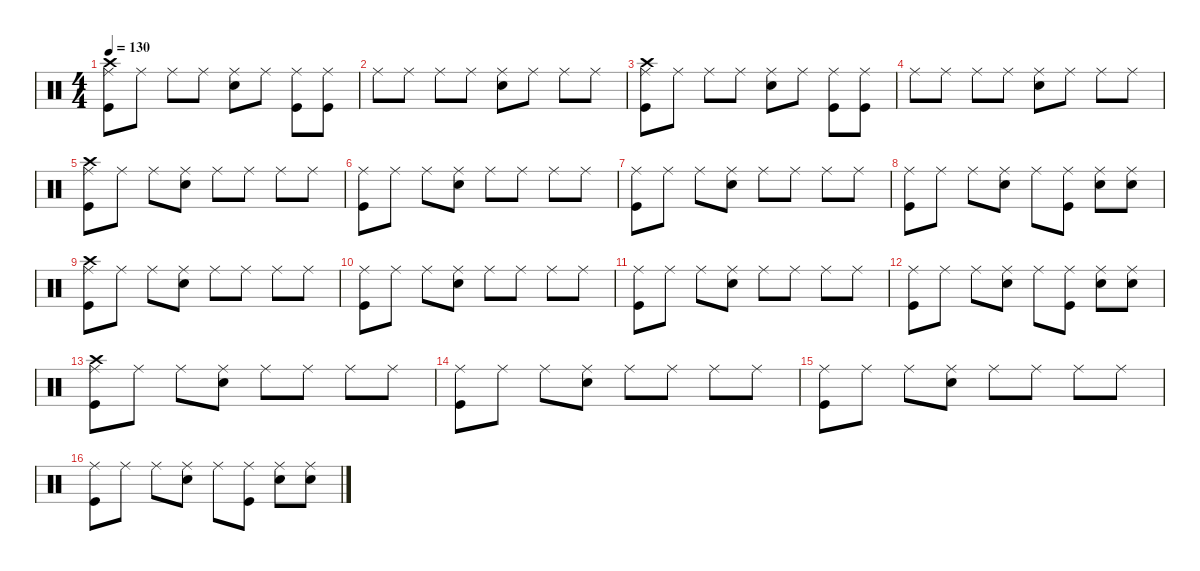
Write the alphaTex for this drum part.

\defaultSystemsLayout 4
\hideDynamics
\bracketExtendMode nobrackets
\singleTrackTrackNamePolicy hidden
\multiTrackTrackNamePolicy hidden
\firstSystemTrackNameMode fullname
\firstSystemTrackNameOrientation horizontal
\otherSystemsTrackNameOrientation horizontal
\track ("Percussion" "drm.") {defaultSystemsLayout 2 instrument percussion}
\staff {score}
\articulation defaults
\ts (4 4)
\tempo 130
\clef neutral
\ks c
("Crash high (hit)" "Ride (middle)" "Kick (hit)").8{dy f beam Down} "Ride (middle)".8{beam Down} "Ride (middle)".8{beam Down} "Ride (middle)".8{beam Down} ("Ride (middle)" "Snare (hit) 2").8{beam Down} "Ride (middle)".8{beam Down} ("Ride (middle)" "Kick (hit)").8{beam Down} ("Ride (middle)" "Kick (hit)").8{beam Down} |
"Ride (middle)".8{beam Down} "Ride (middle)".8{beam Down} "Ride (middle)".8{beam Down} "Ride (middle)".8{beam Down} ("Ride (middle)" "Snare (hit) 2").8{beam Down} "Ride (middle)".8{beam Down} "Ride (middle)".8{beam Down} "Ride (middle)".8{beam Down} |
("Crash high (hit)" "Ride (middle)" "Kick (hit)").8{beam Down} "Ride (middle)".8{beam Down} "Ride (middle)".8{beam Down} "Ride (middle)".8{beam Down} ("Ride (middle)" "Snare (hit) 2").8{beam Down} "Ride (middle)".8{beam Down} ("Ride (middle)" "Kick (hit)").8{beam Down} ("Ride (middle)" "Kick (hit)").8{beam Down} |
"Ride (middle)".8{beam Down} "Ride (middle)".8{beam Down} "Ride (middle)".8{beam Down} "Ride (middle)".8{beam Down} ("Ride (middle)" "Snare (hit) 2").8{beam Down} "Ride (middle)".8{beam Down} "Ride (middle)".8{beam Down} "Ride (middle)".8{beam Down} |
("Crash high (hit)" "Ride (middle)" "Kick (hit)").8{beam Down} "Ride (middle)".8{beam Down} "Ride (middle)".8{beam Down} ("Ride (middle)" "Snare (hit) 2").8{beam Down} "Ride (middle)".8{beam Down} "Ride (middle)".8{beam Down} "Ride (middle)".8{beam Down} "Ride (middle)".8{beam Down} |
("Ride (middle)" "Kick (hit)").8{beam Down} "Ride (middle)".8{beam Down} "Ride (middle)".8{beam Down} ("Ride (middle)" "Snare (hit) 2").8{beam Down} "Ride (middle)".8{beam Down} "Ride (middle)".8{beam Down} "Ride (middle)".8{beam Down} "Ride (middle)".8{beam Down} |
("Ride (middle)" "Kick (hit)").8{beam Down} "Ride (middle)".8{beam Down} "Ride (middle)".8{beam Down} ("Ride (middle)" "Snare (hit) 2").8{beam Down} "Ride (middle)".8{beam Down} "Ride (middle)".8{beam Down} "Ride (middle)".8{beam Down} "Ride (middle)".8{beam Down} |
("Ride (middle)" "Kick (hit)").8{beam Down} "Ride (middle)".8{beam Down} "Ride (middle)".8{beam Down} ("Ride (middle)" "Snare (hit) 2").8{beam Down} "Ride (middle)".8{beam Down} ("Ride (middle)" "Kick (hit)").8{beam Down} ("Ride (middle)" "Snare (hit) 2").8{beam Down} ("Ride (middle)" "Snare (hit) 2").8{beam Down} |
("Crash high (hit)" "Ride (middle)" "Kick (hit)").8{beam Down} "Ride (middle)".8{beam Down} "Ride (middle)".8{beam Down} ("Ride (middle)" "Snare (hit) 2").8{beam Down} "Ride (middle)".8{beam Down} "Ride (middle)".8{beam Down} "Ride (middle)".8{beam Down} "Ride (middle)".8{beam Down} |
("Ride (middle)" "Kick (hit)").8{beam Down} "Ride (middle)".8{beam Down} "Ride (middle)".8{beam Down} ("Ride (middle)" "Snare (hit) 2").8{beam Down} "Ride (middle)".8{beam Down} "Ride (middle)".8{beam Down} "Ride (middle)".8{beam Down} "Ride (middle)".8{beam Down} |
("Ride (middle)" "Kick (hit)").8{beam Down} "Ride (middle)".8{beam Down} "Ride (middle)".8{beam Down} ("Ride (middle)" "Snare (hit) 2").8{beam Down} "Ride (middle)".8{beam Down} "Ride (middle)".8{beam Down} "Ride (middle)".8{beam Down} "Ride (middle)".8{beam Down} |
("Ride (middle)" "Kick (hit)").8{beam Down} "Ride (middle)".8{beam Down} "Ride (middle)".8{beam Down} ("Ride (middle)" "Snare (hit) 2").8{beam Down} "Ride (middle)".8{beam Down} ("Ride (middle)" "Kick (hit)").8{beam Down} ("Ride (middle)" "Snare (hit) 2").8{beam Down} ("Ride (middle)" "Snare (hit) 2").8{beam Down} |
("Crash high (hit)" "Ride (middle)" "Kick (hit)").8{beam Down} "Ride (middle)".8{beam Down} "Ride (middle)".8{beam Down} ("Ride (middle)" "Snare (hit) 2").8{beam Down} "Ride (middle)".8{beam Down} "Ride (middle)".8{beam Down} "Ride (middle)".8{beam Down} "Ride (middle)".8{beam Down} |
("Ride (middle)" "Kick (hit)").8{beam Down} "Ride (middle)".8{beam Down} "Ride (middle)".8{beam Down} ("Ride (middle)" "Snare (hit) 2").8{beam Down} "Ride (middle)".8{beam Down} "Ride (middle)".8{beam Down} "Ride (middle)".8{beam Down} "Ride (middle)".8{beam Down} |
("Ride (middle)" "Kick (hit)").8{beam Down} "Ride (middle)".8{beam Down} "Ride (middle)".8{beam Down} ("Ride (middle)" "Snare (hit) 2").8{beam Down} "Ride (middle)".8{beam Down} "Ride (middle)".8{beam Down} "Ride (middle)".8{beam Down} "Ride (middle)".8{beam Down} |
("Ride (middle)" "Kick (hit)").8{beam Down} "Ride (middle)".8{beam Down} "Ride (middle)".8{beam Down} ("Ride (middle)" "Snare (hit) 2").8{beam Down} "Ride (middle)".8{beam Down} ("Ride (middle)" "Kick (hit)").8{beam Down} ("Ride (middle)" "Snare (hit) 2").8{beam Down} ("Ride (middle)" "Snare (hit) 2").8{beam Down}
